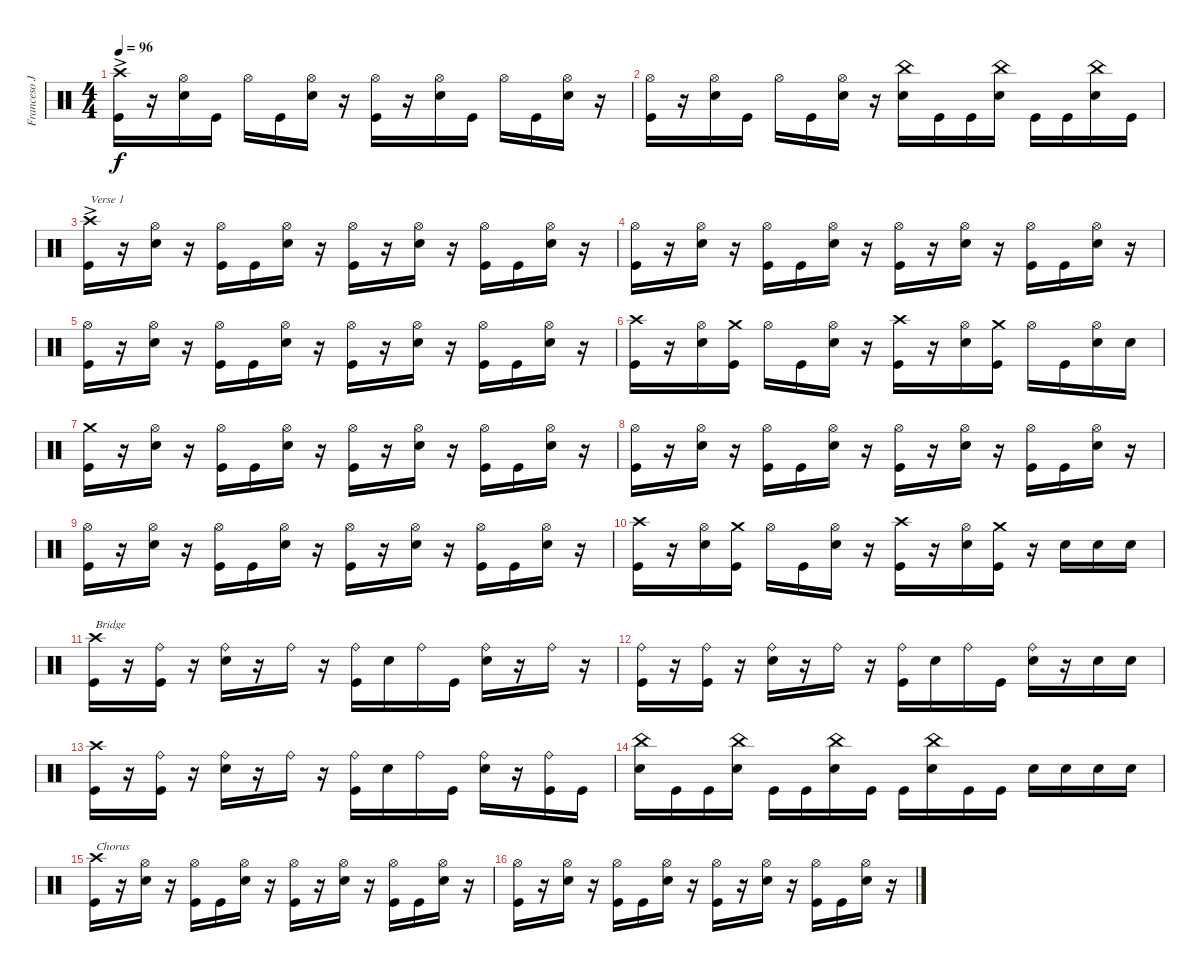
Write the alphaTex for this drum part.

\track ("Franceso Jovino" "Franceso J") {instrument percussion}
\staff {score}
\articulation defaults
\ts (4 4)
\tempo 96
\clef neutral
\ks c
("Kick (hit)"{ac} "Crash high (hit)"{ac}).16{dy f} r.16 ("Snare (hit) 2" "Hi-Hat (open)").16 "Kick (hit)".16 "Hi-Hat (open)".16 "Kick (hit)".16 ("Snare (hit) 2" "Hi-Hat (open)").16 r.16 ("Kick (hit)" "Hi-Hat (open)").16 r.16 ("Snare (hit) 2" "Hi-Hat (open)").16 "Kick (hit)".16 "Hi-Hat (open)".16 "Kick (hit)".16 ("Snare (hit) 2" "Hi-Hat (open)").16 r.16 |
("Kick (hit)" "Hi-Hat (open)").16 r.16 ("Snare (hit) 2" "Hi-Hat (open)").16 "Kick (hit)".16 "Hi-Hat (open)".16 "Kick (hit)".16 ("Snare (hit) 2" "Hi-Hat (open)").16 r.16 ("Snare (hit) 2" "China (hit)").16 "Kick (hit)".16 "Kick (hit)".16 ("Snare (hit) 2" "China (hit)").16 "Kick (hit)".16 "Kick (hit)".16 ("Snare (hit) 2" "China (hit)").16 "Kick (hit)".16 |
("Kick (hit)"{ac} "Crash high (hit)"{ac}).16{txt "Verse 1"} r.16 ("Snare (hit) 2" "Hi-Hat (open)").16 r.16 ("Hi-Hat (open)" "Kick (hit)").16 "Kick (hit)".16 ("Snare (hit) 2" "Hi-Hat (open)").16 r.16 ("Kick (hit)" "Hi-Hat (open)").16 r.16 ("Snare (hit) 2" "Hi-Hat (open)").16 r.16 ("Hi-Hat (open)" "Kick (hit)").16 "Kick (hit)".16 ("Snare (hit) 2" "Hi-Hat (open)").16 r.16 |
("Kick (hit)" "Hi-Hat (open)").16 r.16 ("Snare (hit) 2" "Hi-Hat (open)").16 r.16 ("Hi-Hat (open)" "Kick (hit)").16 "Kick (hit)".16 ("Snare (hit) 2" "Hi-Hat (open)").16 r.16 ("Kick (hit)" "Hi-Hat (open)").16 r.16 ("Snare (hit) 2" "Hi-Hat (open)").16 r.16 ("Hi-Hat (open)" "Kick (hit)").16 "Kick (hit)".16 ("Snare (hit) 2" "Hi-Hat (open)").16 r.16 |
("Kick (hit)" "Hi-Hat (open)").16 r.16 ("Snare (hit) 2" "Hi-Hat (open)").16 r.16 ("Hi-Hat (open)" "Kick (hit)").16 "Kick (hit)".16 ("Snare (hit) 2" "Hi-Hat (open)").16 r.16 ("Kick (hit)" "Hi-Hat (open)").16 r.16 ("Snare (hit) 2" "Hi-Hat (open)").16 r.16 ("Hi-Hat (open)" "Kick (hit)").16 "Kick (hit)".16 ("Snare (hit) 2" "Hi-Hat (open)").16 r.16 |
("Kick (hit)" "Crash high (hit)").16 r.16 ("Snare (hit) 2" "Hi-Hat (open)").16 ("Kick (hit)" "Crash medium (hit)").16 "Hi-Hat (open)".16 "Kick (hit)".16 ("Snare (hit) 2" "Hi-Hat (open)").16 r.16 ("Kick (hit)" "Crash high (hit)").16 r.16 ("Snare (hit) 2" "Hi-Hat (open)").16 ("Kick (hit)" "Crash medium (hit)").16 "Hi-Hat (open)".16 "Kick (hit)".16 ("Snare (hit) 2" "Hi-Hat (open)").16 "Snare (hit) 2".16 |
("Kick (hit)" "Crash medium (hit)").16 r.16 ("Snare (hit) 2" "Hi-Hat (open)").16 r.16 ("Hi-Hat (open)" "Kick (hit)").16 "Kick (hit)".16 ("Snare (hit) 2" "Hi-Hat (open)").16 r.16 ("Kick (hit)" "Hi-Hat (open)").16 r.16 ("Snare (hit) 2" "Hi-Hat (open)").16 r.16 ("Hi-Hat (open)" "Kick (hit)").16 "Kick (hit)".16 ("Snare (hit) 2" "Hi-Hat (open)").16 r.16 |
("Kick (hit)" "Hi-Hat (open)").16 r.16 ("Snare (hit) 2" "Hi-Hat (open)").16 r.16 ("Hi-Hat (open)" "Kick (hit)").16 "Kick (hit)".16 ("Snare (hit) 2" "Hi-Hat (open)").16 r.16 ("Kick (hit)" "Hi-Hat (open)").16 r.16 ("Snare (hit) 2" "Hi-Hat (open)").16 r.16 ("Hi-Hat (open)" "Kick (hit)").16 "Kick (hit)".16 ("Snare (hit) 2" "Hi-Hat (open)").16 r.16 |
("Kick (hit)" "Hi-Hat (open)").16 r.16 ("Snare (hit) 2" "Hi-Hat (open)").16 r.16 ("Hi-Hat (open)" "Kick (hit)").16 "Kick (hit)".16 ("Snare (hit) 2" "Hi-Hat (open)").16 r.16 ("Kick (hit)" "Hi-Hat (open)").16 r.16 ("Snare (hit) 2" "Hi-Hat (open)").16 r.16 ("Hi-Hat (open)" "Kick (hit)").16 "Kick (hit)".16 ("Snare (hit) 2" "Hi-Hat (open)").16 r.16 |
("Kick (hit)" "Crash high (hit)").16 r.16 ("Snare (hit) 2" "Hi-Hat (open)").16 ("Kick (hit)" "Crash medium (hit)").16 "Hi-Hat (open)".16 "Kick (hit)".16 ("Snare (hit) 2" "Hi-Hat (open)").16 r.16 ("Kick (hit)" "Crash high (hit)").16 r.16 ("Snare (hit) 2" "Hi-Hat (open)").16 ("Kick (hit)" "Crash medium (hit)").16 r.16 "Snare (hit) 2".16 "Snare (hit) 2".16 "Snare (hit) 2".16 |
("Kick (hit)" "Crash high (hit)").16{txt "Bridge"} r.16 ("Kick (hit)" "Ride (bell)").16 r.16 ("Ride (bell)" "Snare (hit) 2").16 r.16 "Ride (bell)".16 r.16 ("Kick (hit)" "Ride (bell)").16 "Snare (hit) 2".16 "Ride (bell)".16 "Kick (hit)".16 ("Ride (bell)" "Snare (hit) 2").16 r.16 "Ride (bell)".16 r.16 |
("Kick (hit)" "Ride (bell)").16 r.16 ("Kick (hit)" "Ride (bell)").16 r.16 ("Ride (bell)" "Snare (hit) 2").16 r.16 "Ride (bell)".16 r.16 ("Kick (hit)" "Ride (bell)").16 "Snare (hit) 2".16 "Ride (bell)".16 "Kick (hit)".16 ("Ride (bell)" "Snare (hit) 2").16 r.16 "Snare (hit) 2".16 "Snare (hit) 2".16 |
("Kick (hit)" "Crash high (hit)").16 r.16 ("Kick (hit)" "Ride (bell)").16 r.16 ("Ride (bell)" "Snare (hit) 2").16 r.16 "Ride (bell)".16 r.16 ("Kick (hit)" "Ride (bell)").16 "Snare (hit) 2".16 "Ride (bell)".16 "Kick (hit)".16 ("Ride (bell)" "Snare (hit) 2").16 r.16 ("Ride (bell)" "Kick (hit)").16 "Kick (hit)".16 |
("Snare (hit) 2" "China (hit)").16 "Kick (hit)".16 "Kick (hit)".16 ("Snare (hit) 2" "China (hit)").16 "Kick (hit)".16 "Kick (hit)".16 ("Snare (hit) 2" "China (hit)").16 "Kick (hit)".16 "Kick (hit)".16 ("Snare (hit) 2" "China (hit)").16 "Kick (hit)".16 "Kick (hit)".16 "Snare (hit) 2".16 "Snare (hit) 2".16 "Snare (hit) 2".16 "Snare (hit) 2".16 |
("Kick (hit)" "Crash high (hit)").16{txt "Chorus"} r.16 ("Snare (hit) 2" "Hi-Hat (open)").16 r.16 ("Hi-Hat (open)" "Kick (hit)").16 "Kick (hit)".16 ("Snare (hit) 2" "Hi-Hat (open)").16 r.16 ("Kick (hit)" "Hi-Hat (open)").16 r.16 ("Snare (hit) 2" "Hi-Hat (open)").16 r.16 ("Hi-Hat (open)" "Kick (hit)").16 "Kick (hit)".16 ("Snare (hit) 2" "Hi-Hat (open)").16 r.16 |
("Kick (hit)" "Hi-Hat (open)").16 r.16 ("Snare (hit) 2" "Hi-Hat (open)").16 r.16 ("Hi-Hat (open)" "Kick (hit)").16 "Kick (hit)".16 ("Snare (hit) 2" "Hi-Hat (open)").16 r.16 ("Kick (hit)" "Hi-Hat (open)").16 r.16 ("Snare (hit) 2" "Hi-Hat (open)").16 r.16 ("Hi-Hat (open)" "Kick (hit)").16 "Kick (hit)".16 ("Snare (hit) 2" "Hi-Hat (open)").16 r.16
